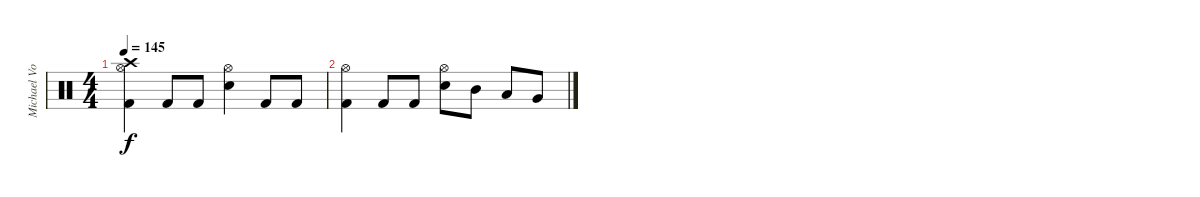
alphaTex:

\track ("Michael Von Knorring" "Michael Vo") {instrument percussion}
\staff {score}
\articulation defaults
\ts (4 4)
\tempo 145
\clef neutral
\ks c
("Crash high (hit)" "Hi-Hat (open)" "Kick (hit) 2").4{dy f} "Kick (hit) 2".8 "Kick (hit) 2".8 ("Hi-Hat (open)" "Snare (hit) 2").4 "Kick (hit) 2".8 "Kick (hit) 2".8 |
("Hi-Hat (open)" "Kick (hit) 2").4 "Kick (hit) 2".8 "Kick (hit) 2".8 ("Hi-Hat (open)" "Snare (hit) 2").8 "Mid Tom (hit)".8 "Low Tom (hit)".8 "Very Low Tom (hit)".8
